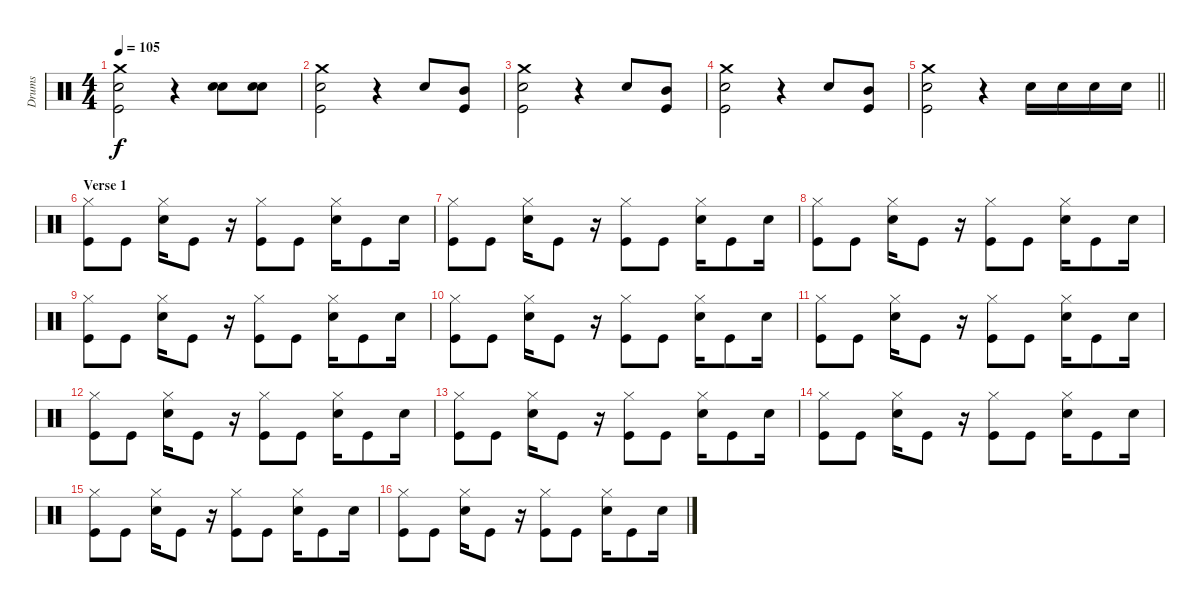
\track ("Drums" "Drums") {instrument percussion}
\staff {score}
\articulation defaults
\ts (4 4)
\tempo 105
\clef neutral
\ks c
("Crash medium (hit)" "Snare (hit) 2" "Kick (hit)").2{dy f} r.4 ("Snare (hit) 2" "Snare (hit) 2").8 ("Snare (hit) 2" "Snare (hit) 2").8 |
("Crash medium (hit)" "Snare (hit) 2" "Kick (hit)").2 r.4 "Snare (hit) 2".8 ("Mid Tom (hit)" "Kick (hit)").8 |
("Crash medium (hit)" "Snare (hit) 2" "Kick (hit)").2 r.4 "Snare (hit) 2".8 ("Mid Tom (hit)" "Kick (hit)").8 |
("Crash medium (hit)" "Snare (hit) 2" "Kick (hit)").2 r.4 "Snare (hit) 2".8 ("Mid Tom (hit)" "Kick (hit)").8 |
\barLineRight lightlight
("Crash medium (hit)" "Snare (hit) 2" "Kick (hit)").2 r.4 "Snare (hit) 2".16 "Snare (hit) 2".16 "Snare (hit) 2".16 "Snare (hit) 2".16 |
\section ("" "Verse 1")
("Hi-Hat (closed)" "Kick (hit)").8 "Kick (hit)".8 ("Hi-Hat (closed)" "Snare (hit) 2").16 "Kick (hit)".8 r.16 ("Hi-Hat (closed)" "Kick (hit)").8 "Kick (hit)".8 ("Hi-Hat (closed)" "Snare (hit) 2").16 "Kick (hit)".8 "Snare (hit) 2".16 |
("Hi-Hat (closed)" "Kick (hit)").8 "Kick (hit)".8 ("Hi-Hat (closed)" "Snare (hit) 2").16 "Kick (hit)".8 r.16 ("Hi-Hat (closed)" "Kick (hit)").8 "Kick (hit)".8 ("Hi-Hat (closed)" "Snare (hit) 2").16 "Kick (hit)".8 "Snare (hit) 2".16 |
("Hi-Hat (closed)" "Kick (hit)").8 "Kick (hit)".8 ("Hi-Hat (closed)" "Snare (hit) 2").16 "Kick (hit)".8 r.16 ("Hi-Hat (closed)" "Kick (hit)").8 "Kick (hit)".8 ("Hi-Hat (closed)" "Snare (hit) 2").16 "Kick (hit)".8 "Snare (hit) 2".16 |
("Hi-Hat (closed)" "Kick (hit)").8 "Kick (hit)".8 ("Hi-Hat (closed)" "Snare (hit) 2").16 "Kick (hit)".8 r.16 ("Hi-Hat (closed)" "Kick (hit)").8 "Kick (hit)".8 ("Hi-Hat (closed)" "Snare (hit) 2").16 "Kick (hit)".8 "Snare (hit) 2".16 |
("Hi-Hat (closed)" "Kick (hit)").8 "Kick (hit)".8 ("Hi-Hat (closed)" "Snare (hit) 2").16 "Kick (hit)".8 r.16 ("Hi-Hat (closed)" "Kick (hit)").8 "Kick (hit)".8 ("Hi-Hat (closed)" "Snare (hit) 2").16 "Kick (hit)".8 "Snare (hit) 2".16 |
("Hi-Hat (closed)" "Kick (hit)").8 "Kick (hit)".8 ("Hi-Hat (closed)" "Snare (hit) 2").16 "Kick (hit)".8 r.16 ("Hi-Hat (closed)" "Kick (hit)").8 "Kick (hit)".8 ("Hi-Hat (closed)" "Snare (hit) 2").16 "Kick (hit)".8 "Snare (hit) 2".16 |
("Hi-Hat (closed)" "Kick (hit)").8 "Kick (hit)".8 ("Hi-Hat (closed)" "Snare (hit) 2").16 "Kick (hit)".8 r.16 ("Hi-Hat (closed)" "Kick (hit)").8 "Kick (hit)".8 ("Hi-Hat (closed)" "Snare (hit) 2").16 "Kick (hit)".8 "Snare (hit) 2".16 |
("Hi-Hat (closed)" "Kick (hit)").8 "Kick (hit)".8 ("Hi-Hat (closed)" "Snare (hit) 2").16 "Kick (hit)".8 r.16 ("Hi-Hat (closed)" "Kick (hit)").8 "Kick (hit)".8 ("Hi-Hat (closed)" "Snare (hit) 2").16 "Kick (hit)".8 "Snare (hit) 2".16 |
("Hi-Hat (closed)" "Kick (hit)").8 "Kick (hit)".8 ("Hi-Hat (closed)" "Snare (hit) 2").16 "Kick (hit)".8 r.16 ("Hi-Hat (closed)" "Kick (hit)").8 "Kick (hit)".8 ("Hi-Hat (closed)" "Snare (hit) 2").16 "Kick (hit)".8 "Snare (hit) 2".16 |
("Hi-Hat (closed)" "Kick (hit)").8 "Kick (hit)".8 ("Hi-Hat (closed)" "Snare (hit) 2").16 "Kick (hit)".8 r.16 ("Hi-Hat (closed)" "Kick (hit)").8 "Kick (hit)".8 ("Hi-Hat (closed)" "Snare (hit) 2").16 "Kick (hit)".8 "Snare (hit) 2".16 |
("Hi-Hat (closed)" "Kick (hit)").8 "Kick (hit)".8 ("Hi-Hat (closed)" "Snare (hit) 2").16 "Kick (hit)".8 r.16 ("Hi-Hat (closed)" "Kick (hit)").8 "Kick (hit)".8 ("Hi-Hat (closed)" "Snare (hit) 2").16 "Kick (hit)".8 "Snare (hit) 2".16
